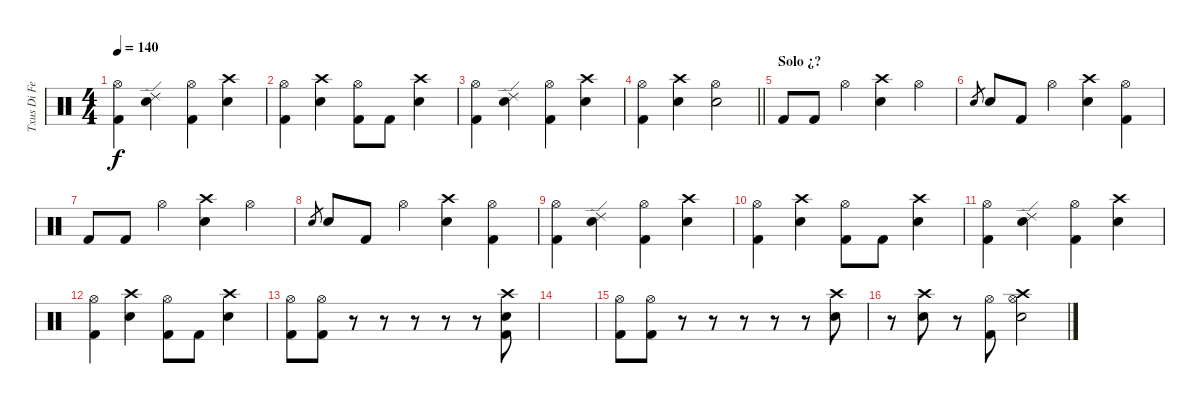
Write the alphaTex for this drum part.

\track ("Txus Di Fellatio" "Txus Di Fe") {instrument percussion}
\staff {score}
\articulation defaults
\ts (4 4)
\tempo 140
\clef neutral
\ks c
("Hi-Hat (open)" "Kick (hit) 2").4{dy f} ("Ride (edge) 2" "Electric Snare (hit)").4 ("Hi-Hat (open)" "Kick (hit) 2").4 ("Crash high (hit)" "Electric Snare (hit)").4 |
("Hi-Hat (open)" "Kick (hit) 2").4 ("Crash high (hit)" "Electric Snare (hit)").4 ("Hi-Hat (open)" "Kick (hit) 2").8 "Kick (hit) 2".8 ("Crash high (hit)" "Electric Snare (hit)").4 |
("Hi-Hat (open)" "Kick (hit) 2").4 ("Ride (edge) 2" "Electric Snare (hit)").4 ("Hi-Hat (open)" "Kick (hit) 2").4 ("Crash high (hit)" "Electric Snare (hit)").4 |
\barLineRight lightlight
("Hi-Hat (open)" "Kick (hit) 2").4 ("Crash high (hit)" "Electric Snare (hit)").4 ("Hi-Hat (open)" "Electric Snare (hit)").2 |
\section ("" "Solo ¿?")
"Kick (hit) 2".8 "Kick (hit) 2".8 "Hi-Hat (open)".4 ("Crash high (hit)" "Electric Snare (hit)").4 "Hi-Hat (open)".4 |
"Electric Snare (hit)".8{gr} "Electric Snare (hit)".8 "Kick (hit) 2".8 "Hi-Hat (open)".4 ("Crash high (hit)" "Electric Snare (hit)").4 ("Hi-Hat (open)" "Kick (hit) 2").4 |
"Kick (hit) 2".8 "Kick (hit) 2".8 "Hi-Hat (open)".4 ("Crash high (hit)" "Electric Snare (hit)").4 "Hi-Hat (open)".4 |
"Electric Snare (hit)".8{gr} "Electric Snare (hit)".8 "Kick (hit) 2".8 "Hi-Hat (open)".4 ("Crash high (hit)" "Electric Snare (hit)").4 ("Hi-Hat (open)" "Kick (hit) 2").4 |
("Hi-Hat (open)" "Kick (hit) 2").4 ("Ride (edge) 2" "Electric Snare (hit)").4 ("Hi-Hat (open)" "Kick (hit) 2").4 ("Crash high (hit)" "Electric Snare (hit)").4 |
("Hi-Hat (open)" "Kick (hit) 2").4 ("Crash high (hit)" "Electric Snare (hit)").4 ("Hi-Hat (open)" "Kick (hit) 2").8 "Kick (hit) 2".8 ("Crash high (hit)" "Electric Snare (hit)").4 |
("Hi-Hat (open)" "Kick (hit) 2").4 ("Ride (edge) 2" "Electric Snare (hit)").4 ("Hi-Hat (open)" "Kick (hit) 2").4 ("Crash high (hit)" "Electric Snare (hit)").4 |
("Hi-Hat (open)" "Kick (hit) 2").4 ("Crash high (hit)" "Electric Snare (hit)").4 ("Hi-Hat (open)" "Kick (hit) 2").8 "Kick (hit) 2".8 ("Crash high (hit)" "Electric Snare (hit)").4 |
("Hi-Hat (open)" "Kick (hit) 2").8 ("Hi-Hat (open)" "Kick (hit) 2").8 r.8 r.8 r.8 r.8 r.8 ("Crash high (hit)" "Electric Snare (hit)" "Kick (hit) 2").8 |
|
("Hi-Hat (open)" "Kick (hit) 2").8 ("Hi-Hat (open)" "Kick (hit) 2").8 r.8 r.8 r.8 r.8 r.8 ("Crash high (hit)" "Electric Snare (hit)").8 |
r.8 ("Crash high (hit)" "Electric Snare (hit)").8 r.8 ("Hi-Hat (open)" "Kick (hit) 2").8 ("Crash high (hit)" "Electric Snare (hit)" "Hi-Hat (open)").2
